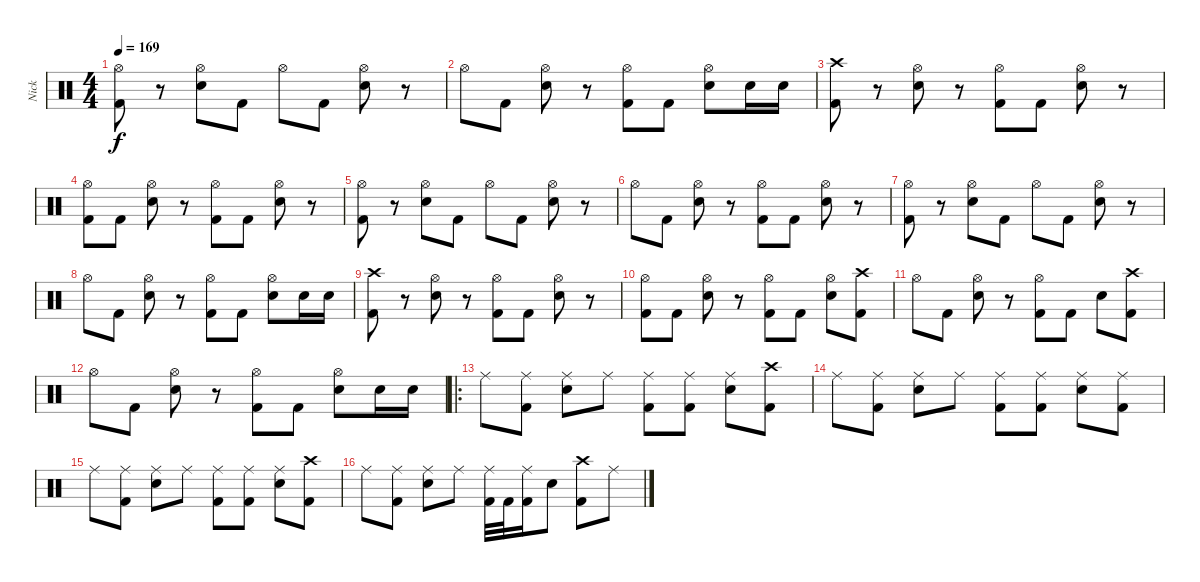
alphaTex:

\track ("Nick" "Nick") {instrument percussion}
\staff {score}
\articulation defaults
\ts (4 4)
\tempo 169
\clef neutral
\ks c
("Hi-Hat (open)" "Kick (hit) 2").8{dy f} r.8 ("Hi-Hat (open)" "Snare (hit) 2").8 "Kick (hit) 2".8 "Hi-Hat (open)".8 "Kick (hit) 2".8 ("Hi-Hat (open)" "Snare (hit) 2").8 r.8 |
"Hi-Hat (open)".8 "Kick (hit) 2".8 ("Hi-Hat (open)" "Snare (hit) 2").8 r.8 ("Hi-Hat (open)" "Kick (hit) 2").8 "Kick (hit) 2".8 ("Hi-Hat (open)" "Snare (hit) 2").8 "Snare (hit) 2".16 "Snare (hit) 2".16 |
("Crash high (hit)" "Kick (hit) 2").8 r.8 ("Hi-Hat (open)" "Snare (hit) 2").8 r.8 ("Hi-Hat (open)" "Kick (hit) 2").8 "Kick (hit) 2".8 ("Hi-Hat (open)" "Snare (hit) 2").8 r.8 |
("Hi-Hat (open)" "Kick (hit) 2").8 "Kick (hit) 2".8 ("Hi-Hat (open)" "Snare (hit) 2").8 r.8 ("Hi-Hat (open)" "Kick (hit) 2").8 "Kick (hit) 2".8 ("Hi-Hat (open)" "Snare (hit) 2").8 r.8 |
("Hi-Hat (open)" "Kick (hit) 2").8 r.8 ("Hi-Hat (open)" "Snare (hit) 2").8 "Kick (hit) 2".8 "Hi-Hat (open)".8 "Kick (hit) 2".8 ("Hi-Hat (open)" "Snare (hit) 2").8 r.8 |
"Hi-Hat (open)".8 "Kick (hit) 2".8 ("Hi-Hat (open)" "Snare (hit) 2").8 r.8 ("Hi-Hat (open)" "Kick (hit) 2").8 "Kick (hit) 2".8 ("Hi-Hat (open)" "Snare (hit) 2").8 r.8 |
("Hi-Hat (open)" "Kick (hit) 2").8 r.8 ("Hi-Hat (open)" "Snare (hit) 2").8 "Kick (hit) 2".8 "Hi-Hat (open)".8 "Kick (hit) 2".8 ("Hi-Hat (open)" "Snare (hit) 2").8 r.8 |
"Hi-Hat (open)".8 "Kick (hit) 2".8 ("Hi-Hat (open)" "Snare (hit) 2").8 r.8 ("Hi-Hat (open)" "Kick (hit) 2").8 "Kick (hit) 2".8 ("Hi-Hat (open)" "Snare (hit) 2").8 "Snare (hit) 2".16 "Snare (hit) 2".16 |
("Crash high (hit)" "Kick (hit) 2").8 r.8 ("Hi-Hat (open)" "Snare (hit) 2").8 r.8 ("Hi-Hat (open)" "Kick (hit) 2").8 "Kick (hit) 2".8 ("Hi-Hat (open)" "Snare (hit) 2").8 r.8 |
("Hi-Hat (open)" "Kick (hit) 2").8 "Kick (hit) 2".8 ("Hi-Hat (open)" "Snare (hit) 2").8 r.8 ("Hi-Hat (open)" "Kick (hit) 2").8 "Kick (hit) 2".8 ("Hi-Hat (open)" "Snare (hit) 2").8 ("Crash high (hit)" "Kick (hit) 2").8 |
"Hi-Hat (open)".8 "Kick (hit) 2".8 ("Hi-Hat (open)" "Snare (hit) 2").8 r.8 ("Hi-Hat (open)" "Kick (hit) 2").8 "Kick (hit) 2".8 "Snare (hit) 2".8 ("Crash high (hit)" "Kick (hit) 2").8 |
"Hi-Hat (open)".8 "Kick (hit) 2".8 ("Hi-Hat (open)" "Snare (hit) 2").8 r.8 ("Hi-Hat (open)" "Kick (hit) 2").8 "Kick (hit) 2".8 ("Hi-Hat (open)" "Snare (hit) 2").8 "Snare (hit) 2".16 "Snare (hit) 2".16 |
\ro "Ride (middle)".8
("Ride (middle)" "Kick (hit) 2").8 ("Ride (middle)" "Snare (hit) 2").8 "Ride (middle)".8 ("Ride (middle)" "Kick (hit) 2").8 ("Ride (middle)" "Kick (hit) 2").8 ("Ride (middle)" "Snare (hit) 2").8 ("Crash high (hit)" "Kick (hit) 2").8 |
"Ride (middle)".8 ("Ride (middle)" "Kick (hit) 2").8 ("Ride (middle)" "Snare (hit) 2").8 "Ride (middle)".8 ("Ride (middle)" "Kick (hit) 2").8 ("Ride (middle)" "Kick (hit) 2").8 ("Ride (middle)" "Snare (hit) 2").8 ("Ride (middle)" "Kick (hit) 2").8 |
"Ride (middle)".8 ("Ride (middle)" "Kick (hit) 2").8 ("Ride (middle)" "Snare (hit) 2").8 "Ride (middle)".8 ("Ride (middle)" "Kick (hit) 2").8 ("Ride (middle)" "Kick (hit) 2").8 ("Ride (middle)" "Snare (hit) 2").8 ("Crash high (hit)" "Kick (hit) 2").8 |
"Ride (middle)".8 ("Ride (middle)" "Kick (hit) 2").8 ("Ride (middle)" "Snare (hit) 2").8 "Ride (middle)".8 ("Ride (middle)" "Kick (hit) 2").32 "Kick (hit) 2".32 ("Ride (middle)" "Kick (hit) 2").16 "Snare (hit) 2".8 ("Crash high (hit)" "Kick (hit) 2").8 "Ride (middle)".8
